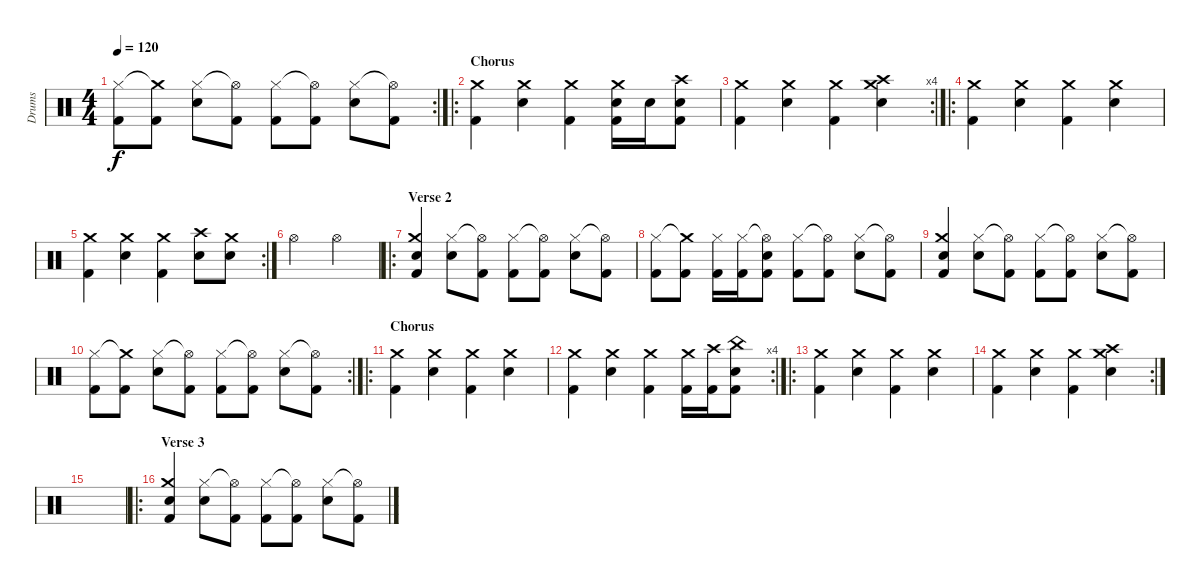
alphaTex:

\track ("Drums" "Drums") {instrument percussion}
\staff {score}
\articulation defaults
\rc 2
\ts (4 4)
\tempo 120
\clef neutral
\ks c
("Hi-Hat (closed)" "Kick (hit) 2").8{dy f} ("Crash medium (hit)"{t} "Kick (hit) 2").8 ("Hi-Hat (closed)" "Snare (hit) 2").8 ("Hi-Hat (open)"{t} "Kick (hit) 2").8 ("Hi-Hat (closed)" "Kick (hit) 2").8 ("Hi-Hat (open)"{t} "Kick (hit) 2").8 ("Hi-Hat (closed)" "Snare (hit) 2").8 ("Hi-Hat (open)"{t} "Kick (hit) 2").8 |
\ro
\section ("" "Chorus")
("Crash medium (hit)" "Kick (hit) 2").4 ("Crash medium (hit)" "Snare (hit) 2").4 ("Crash medium (hit)" "Kick (hit) 2").4 ("Crash medium (hit)" "Snare (hit) 2" "Kick (hit) 2").16 "Snare (hit) 2".16 ("Crash high (hit)" "Snare (hit) 2" "Kick (hit) 2").8 |
\rc 4
("Crash medium (hit)" "Kick (hit) 2").4 ("Crash medium (hit)" "Snare (hit) 2").4 ("Crash medium (hit)" "Kick (hit) 2").4 ("Crash high (hit)" "Crash medium (hit)" "Snare (hit) 2").4 |
\ro
("Crash medium (hit)" "Kick (hit) 2").4 ("Crash medium (hit)" "Snare (hit) 2").4 ("Crash medium (hit)" "Kick (hit) 2").4 ("Crash medium (hit)" "Snare (hit) 2").4 |
\rc 2
("Crash medium (hit)" "Kick (hit) 2").4 ("Crash medium (hit)" "Snare (hit) 2").4 ("Crash medium (hit)" "Kick (hit) 2").4 ("Crash high (hit)" "Snare (hit) 2").8 ("Crash medium (hit)" "Snare (hit) 2").8 |
"Hi-Hat (open)".2 "Hi-Hat (open)".2 |
\ro
\section ("" "Verse 2")
("Crash medium (hit)" "Snare (hit) 2" "Kick (hit) 2").4 ("Hi-Hat (closed)" "Snare (hit) 2").8 ("Hi-Hat (open)"{t} "Kick (hit) 2").8 ("Hi-Hat (closed)" "Kick (hit) 2").8 ("Hi-Hat (open)"{t} "Kick (hit) 2").8 ("Hi-Hat (closed)" "Snare (hit) 2").8 ("Hi-Hat (open)"{t} "Kick (hit) 2").8 |
("Hi-Hat (closed)" "Kick (hit) 2").8 ("Crash medium (hit)"{t} "Kick (hit) 2").8 ("Hi-Hat (closed)" "Kick (hit) 2").16 ("Hi-Hat (closed)" "Kick (hit) 2").16 ("Hi-Hat (open)"{t} "Snare (hit) 2" "Kick (hit) 2").8 ("Hi-Hat (closed)" "Kick (hit) 2").8 ("Hi-Hat (open)"{t} "Kick (hit) 2").8 ("Hi-Hat (closed)" "Snare (hit) 2").8 ("Hi-Hat (open)"{t} "Kick (hit) 2").8 |
("Crash medium (hit)" "Snare (hit) 2" "Kick (hit) 2").4 ("Hi-Hat (closed)" "Snare (hit) 2").8 ("Hi-Hat (open)"{t} "Kick (hit) 2").8 ("Hi-Hat (closed)" "Kick (hit) 2").8 ("Hi-Hat (open)"{t} "Kick (hit) 2").8 ("Hi-Hat (closed)" "Snare (hit) 2").8 ("Hi-Hat (open)"{t} "Kick (hit) 2").8 |
\rc 2
("Hi-Hat (closed)" "Kick (hit) 2").8 ("Crash medium (hit)"{t} "Kick (hit) 2").8 ("Hi-Hat (closed)" "Snare (hit) 2").8 ("Hi-Hat (open)"{t} "Kick (hit) 2").8 ("Hi-Hat (closed)" "Kick (hit) 2").8 ("Hi-Hat (open)"{t} "Kick (hit) 2").8 ("Hi-Hat (closed)" "Snare (hit) 2").8 ("Hi-Hat (open)"{t} "Kick (hit) 2").8 |
\ro
\section ("" "Chorus")
("Crash medium (hit)" "Kick (hit) 2").4 ("Crash medium (hit)" "Snare (hit) 2").4 ("Crash medium (hit)" "Kick (hit) 2").4 ("Crash medium (hit)" "Snare (hit) 2").4 |
\rc 4
("Crash medium (hit)" "Kick (hit) 2").4 ("Crash medium (hit)" "Snare (hit) 2").4 ("Crash medium (hit)" "Kick (hit) 2").4 ("Crash medium (hit)" "Kick (hit) 2").16 ("Crash high (hit)" "Kick (hit) 2").16 ("China (hit)" "Snare (hit) 2" "Kick (hit) 2").8 |
\ro
("Crash medium (hit)" "Kick (hit) 2").4 ("Crash medium (hit)" "Snare (hit) 2").4 ("Crash medium (hit)" "Kick (hit) 2").4 ("Crash medium (hit)" "Snare (hit) 2").4 |
\rc 2
("Crash medium (hit)" "Kick (hit) 2").4 ("Crash medium (hit)" "Snare (hit) 2").4 ("Crash medium (hit)" "Kick (hit) 2").4 ("Crash high (hit)" "Crash medium (hit)" "Snare (hit) 2").4 |
|
\ro
\section ("" "Verse 3")
("Crash medium (hit)" "Snare (hit) 2" "Kick (hit) 2").4 ("Hi-Hat (closed)" "Snare (hit) 2").8 ("Hi-Hat (open)"{t} "Kick (hit) 2").8 ("Hi-Hat (closed)" "Kick (hit) 2").8 ("Hi-Hat (open)"{t} "Kick (hit) 2").8 ("Hi-Hat (closed)" "Snare (hit) 2").8 ("Hi-Hat (open)"{t} "Kick (hit) 2").8
